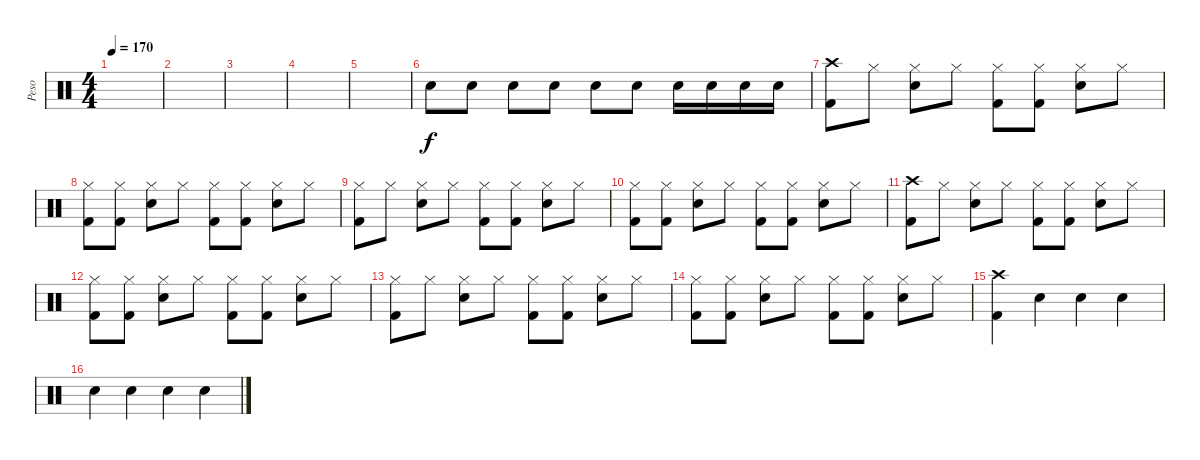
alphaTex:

\track ("Peso" "Peso") {instrument percussion}
\staff {score}
\articulation defaults
\ts (4 4)
\tempo 170
\clef neutral
\ks c
|
|
|
|
|
"Snare (hit) 2".8 "Snare (hit) 2".8 "Snare (hit) 2".8 "Snare (hit) 2".8 "Snare (hit) 2".8 "Snare (hit) 2".8 "Snare (hit) 2".16 "Snare (hit) 2".16 "Snare (hit) 2".16 "Snare (hit) 2".16 |
("Crash high (hit)" "Kick (hit) 2").8 "Hi-Hat (closed)"{x}.8 ("Hi-Hat (closed)" "Snare (hit) 2").8 "Hi-Hat (closed)"{x}.8 ("Hi-Hat (closed)" "Kick (hit) 2").8 ("Hi-Hat (closed)"{x} "Kick (hit) 2").8 ("Hi-Hat (closed)" "Snare (hit) 2").8 "Hi-Hat (closed)"{x}.8 |
("Hi-Hat (closed)" "Kick (hit) 2").8 ("Hi-Hat (closed)"{x} "Kick (hit) 2").8 ("Hi-Hat (closed)" "Snare (hit) 2").8 "Hi-Hat (closed)"{x}.8 ("Hi-Hat (closed)" "Kick (hit) 2").8 ("Hi-Hat (closed)"{x} "Kick (hit) 2").8 ("Hi-Hat (closed)" "Snare (hit) 2").8 "Hi-Hat (closed)"{x}.8 |
("Hi-Hat (closed)" "Kick (hit) 2").8 "Hi-Hat (closed)"{x}.8 ("Hi-Hat (closed)" "Snare (hit) 2").8 "Hi-Hat (closed)"{x}.8 ("Hi-Hat (closed)" "Kick (hit) 2").8 ("Hi-Hat (closed)"{x} "Kick (hit) 2").8 ("Hi-Hat (closed)" "Snare (hit) 2").8 "Hi-Hat (closed)"{x}.8 |
("Hi-Hat (closed)" "Kick (hit) 2").8 ("Hi-Hat (closed)"{x} "Kick (hit) 2").8 ("Hi-Hat (closed)" "Snare (hit) 2").8 "Hi-Hat (closed)"{x}.8 ("Hi-Hat (closed)" "Kick (hit) 2").8 ("Hi-Hat (closed)"{x} "Kick (hit) 2").8 ("Hi-Hat (closed)" "Snare (hit) 2").8 "Hi-Hat (closed)"{x}.8 |
("Crash high (hit)" "Kick (hit) 2").8 "Hi-Hat (closed)"{x}.8 ("Hi-Hat (closed)" "Snare (hit) 2").8 "Hi-Hat (closed)"{x}.8 ("Hi-Hat (closed)" "Kick (hit) 2").8 ("Hi-Hat (closed)"{x} "Kick (hit) 2").8 ("Hi-Hat (closed)" "Snare (hit) 2").8 "Hi-Hat (closed)"{x}.8 |
("Hi-Hat (closed)" "Kick (hit) 2").8 ("Hi-Hat (closed)"{x} "Kick (hit) 2").8 ("Hi-Hat (closed)" "Snare (hit) 2").8 "Hi-Hat (closed)"{x}.8 ("Hi-Hat (closed)" "Kick (hit) 2").8 ("Hi-Hat (closed)"{x} "Kick (hit) 2").8 ("Hi-Hat (closed)" "Snare (hit) 2").8 "Hi-Hat (closed)"{x}.8 |
("Hi-Hat (closed)" "Kick (hit) 2").8 "Hi-Hat (closed)"{x}.8 ("Hi-Hat (closed)" "Snare (hit) 2").8 "Hi-Hat (closed)"{x}.8 ("Hi-Hat (closed)" "Kick (hit) 2").8 ("Hi-Hat (closed)"{x} "Kick (hit) 2").8 ("Hi-Hat (closed)" "Snare (hit) 2").8 "Hi-Hat (closed)"{x}.8 |
("Hi-Hat (closed)" "Kick (hit) 2").8 ("Hi-Hat (closed)"{x} "Kick (hit) 2").8 ("Hi-Hat (closed)" "Snare (hit) 2").8 "Hi-Hat (closed)"{x}.8 ("Hi-Hat (closed)" "Kick (hit) 2").8 ("Hi-Hat (closed)"{x} "Kick (hit) 2").8 ("Hi-Hat (closed)" "Snare (hit) 2").8 "Hi-Hat (closed)"{x}.8 |
("Crash high (hit)" "Kick (hit) 2").4 "Snare (hit)"{x}.4 "Snare (hit)"{x}.4 "Snare (hit)"{x}.4 |
"Snare (hit)"{x}.4 "Snare (hit)"{x}.4 "Snare (hit)"{x}.4 "Snare (hit)"{x}.4
